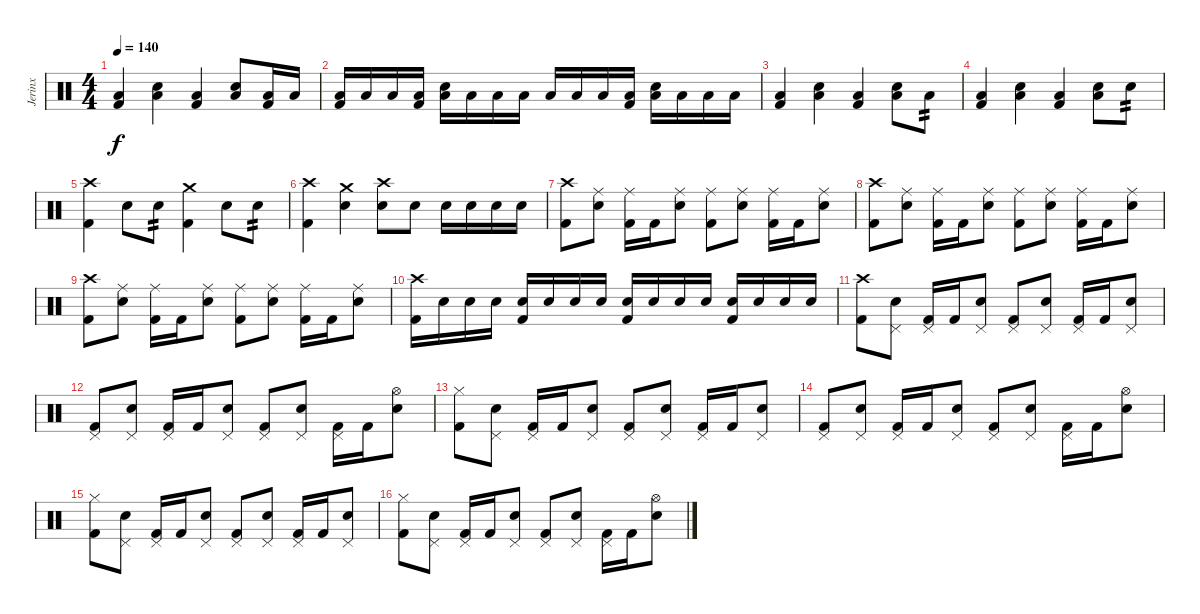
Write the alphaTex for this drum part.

\track ("Jerinx" "Jerinx") {instrument percussion}
\staff {score}
\articulation defaults
\ts (4 4)
\tempo 140
\clef neutral
\ks c
("Low Floor Tom (hit)" "Kick (hit) 2").4{dy f} ("Low Floor Tom (hit)" "Electric Snare (hit)").4 ("Low Floor Tom (hit)" "Kick (hit) 2").4 ("Low Floor Tom (hit)" "Electric Snare (hit)").8 ("Low Tom (hit)" "Kick (hit) 2").16 "Low Tom (hit)".16 |
("Low Tom (hit)" "Kick (hit) 2").16 "Low Tom (hit)".16 "Low Tom (hit)".16 ("Low Tom (hit)" "Kick (hit) 2").16 ("Low Tom (hit)" "Electric Snare (hit)").16 "Low Floor Tom (hit)".16 "Low Floor Tom (hit)".16 "Low Floor Tom (hit)".16 "Low Floor Tom (hit)".16 "Low Floor Tom (hit)".16 "Low Floor Tom (hit)".16 ("Low Floor Tom (hit)" "Kick (hit) 2").16 ("Low Floor Tom (hit)" "Electric Snare (hit)").16 "Low Floor Tom (hit)".16 "Low Floor Tom (hit)".16 "Low Floor Tom (hit)".16 |
("Low Floor Tom (hit)" "Kick (hit) 2").4 ("Low Floor Tom (hit)" "Electric Snare (hit)").4 ("Low Floor Tom (hit)" "Kick (hit) 2").4 ("Low Floor Tom (hit)" "Electric Snare (hit)").8 "Low Floor Tom (hit)".8{tp 2} |
("Low Floor Tom (hit)" "Kick (hit) 2").4 ("Low Floor Tom (hit)" "Electric Snare (hit)").4 ("Low Floor Tom (hit)" "Kick (hit) 2").4 ("Low Floor Tom (hit)" "Electric Snare (hit)").8 "Electric Snare (hit)".8{tp 2} |
("Crash high (hit)" "Kick (hit) 2").4 "Electric Snare (hit)".8 "Electric Snare (hit)".8{tp 2} ("Crash medium (hit)" "Kick (hit) 2").4 "Electric Snare (hit)".8 "Electric Snare (hit)".8{tp 2} |
("Crash high (hit)" "Kick (hit) 2").4 ("Crash medium (hit)" "Electric Snare (hit)").4 ("Crash high (hit)" "Electric Snare (hit)").8 "Electric Snare (hit)".8 "Electric Snare (hit)".16 "Electric Snare (hit)".16 "Electric Snare (hit)".16 "Electric Snare (hit)".16 |
("Crash high (hit)" "Kick (hit) 2").8 ("Ride (middle)" "Electric Snare (hit)").8 ("Ride (middle)" "Kick (hit) 2").16 "Kick (hit) 2".16 ("Ride (middle)" "Electric Snare (hit)").8 ("Ride (middle)" "Kick (hit) 2").8 ("Ride (middle)" "Electric Snare (hit)").8 ("Ride (middle)" "Kick (hit) 2").16 "Kick (hit) 2".16 ("Ride (middle)" "Electric Snare (hit)").8 |
("Crash high (hit)" "Kick (hit) 2").8 ("Ride (middle)" "Electric Snare (hit)").8 ("Ride (middle)" "Kick (hit) 2").16 "Kick (hit) 2".16 ("Ride (middle)" "Electric Snare (hit)").8 ("Ride (middle)" "Kick (hit) 2").8 ("Ride (middle)" "Electric Snare (hit)").8 ("Ride (middle)" "Kick (hit) 2").16 "Kick (hit) 2".16 ("Ride (middle)" "Electric Snare (hit)").8 |
("Crash high (hit)" "Kick (hit) 2").8 ("Ride (middle)" "Electric Snare (hit)").8 ("Ride (middle)" "Kick (hit) 2").16 "Kick (hit) 2".16 ("Ride (middle)" "Electric Snare (hit)").8 ("Ride (middle)" "Kick (hit) 2").8 ("Ride (middle)" "Electric Snare (hit)").8 ("Ride (middle)" "Kick (hit) 2").16 "Kick (hit) 2".16 ("Ride (middle)" "Electric Snare (hit)").8 |
("Crash high (hit)" "Kick (hit) 2").16 "Electric Snare (hit)".16 "Electric Snare (hit)".16 "Electric Snare (hit)".16 ("Electric Snare (hit)" "Kick (hit) 2").16 "Electric Snare (hit)".16 "Electric Snare (hit)".16 "Electric Snare (hit)".16 ("Electric Snare (hit)" "Kick (hit) 2").16 "Electric Snare (hit)".16 "Electric Snare (hit)".16 "Electric Snare (hit)".16 ("Electric Snare (hit)" "Kick (hit) 2").16 "Electric Snare (hit)".16 "Electric Snare (hit)".16 "Electric Snare (hit)".16 |
("Crash high (hit)" "Kick (hit) 2").8 ("Pedal Hi-Hat (hit)" "Electric Snare (hit)").8 ("Pedal Hi-Hat (hit)" "Kick (hit) 2").16 "Kick (hit) 2".16 ("Pedal Hi-Hat (hit)" "Electric Snare (hit)").8 ("Pedal Hi-Hat (hit)" "Kick (hit) 2").8 ("Pedal Hi-Hat (hit)" "Electric Snare (hit)").8 ("Pedal Hi-Hat (hit)" "Kick (hit) 2").16 "Kick (hit) 2".16 ("Pedal Hi-Hat (hit)" "Electric Snare (hit)").8 |
("Pedal Hi-Hat (hit)" "Kick (hit) 2").8 ("Pedal Hi-Hat (hit)" "Electric Snare (hit)").8 ("Pedal Hi-Hat (hit)" "Kick (hit) 2").16 "Kick (hit) 2".16 ("Pedal Hi-Hat (hit)" "Electric Snare (hit)").8 ("Pedal Hi-Hat (hit)" "Kick (hit) 2").8 ("Pedal Hi-Hat (hit)" "Electric Snare (hit)").8 ("Pedal Hi-Hat (hit)" "Kick (hit) 2").16 "Kick (hit) 2".16 ("Hi-Hat (open)" "Electric Snare (hit)").8 |
("Hi-Hat (closed)" "Kick (hit) 2").8 ("Pedal Hi-Hat (hit)" "Electric Snare (hit)").8 ("Pedal Hi-Hat (hit)" "Kick (hit) 2").16 "Kick (hit) 2".16 ("Pedal Hi-Hat (hit)" "Electric Snare (hit)").8 ("Pedal Hi-Hat (hit)" "Kick (hit) 2").8 ("Pedal Hi-Hat (hit)" "Electric Snare (hit)").8 ("Pedal Hi-Hat (hit)" "Kick (hit) 2").16 "Kick (hit) 2".16 ("Pedal Hi-Hat (hit)" "Electric Snare (hit)").8 |
("Pedal Hi-Hat (hit)" "Kick (hit) 2").8 ("Pedal Hi-Hat (hit)" "Electric Snare (hit)").8 ("Pedal Hi-Hat (hit)" "Kick (hit) 2").16 "Kick (hit) 2".16 ("Pedal Hi-Hat (hit)" "Electric Snare (hit)").8 ("Pedal Hi-Hat (hit)" "Kick (hit) 2").8 ("Pedal Hi-Hat (hit)" "Electric Snare (hit)").8 ("Pedal Hi-Hat (hit)" "Kick (hit) 2").16 "Kick (hit) 2".16 ("Hi-Hat (open)" "Electric Snare (hit)").8 |
("Hi-Hat (closed)" "Kick (hit) 2").8 ("Pedal Hi-Hat (hit)" "Electric Snare (hit)").8 ("Pedal Hi-Hat (hit)" "Kick (hit) 2").16 "Kick (hit) 2".16 ("Pedal Hi-Hat (hit)" "Electric Snare (hit)").8 ("Pedal Hi-Hat (hit)" "Kick (hit) 2").8 ("Pedal Hi-Hat (hit)" "Electric Snare (hit)").8 ("Pedal Hi-Hat (hit)" "Kick (hit) 2").16 "Kick (hit) 2".16 ("Pedal Hi-Hat (hit)" "Electric Snare (hit)").8 |
("Hi-Hat (closed)" "Kick (hit) 2").8 ("Pedal Hi-Hat (hit)" "Electric Snare (hit)").8 ("Pedal Hi-Hat (hit)" "Kick (hit) 2").16 "Kick (hit) 2".16 ("Pedal Hi-Hat (hit)" "Electric Snare (hit)").8 ("Pedal Hi-Hat (hit)" "Kick (hit) 2").8 ("Pedal Hi-Hat (hit)" "Electric Snare (hit)").8 ("Pedal Hi-Hat (hit)" "Kick (hit) 2").16 "Kick (hit) 2".16 ("Hi-Hat (open)" "Electric Snare (hit)").8
